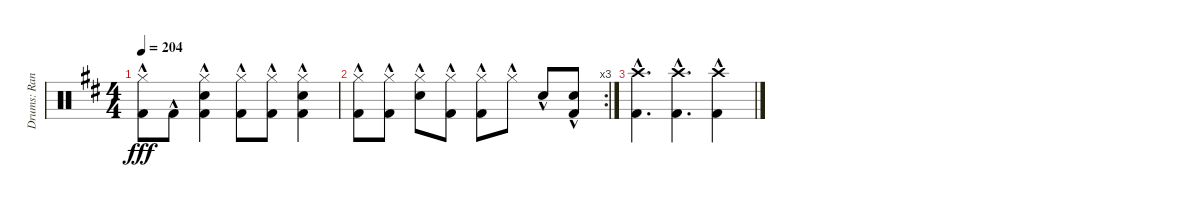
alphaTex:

\track ("Drums: Randy" "Drums: Ran") {instrument percussion}
\staff {score}
\articulation defaults
\ts (4 4)
\tempo 204
\clef neutral
\ks d
("Hi-Hat (closed)"{hac} "Kick (hit) 2"{hac}).8{dy fff} "Kick (hit) 2"{hac}.8{beam merge} ("Hi-Hat (closed)"{hac} "Snare (hit) 2"{hac} "Kick (hit) 2"{hac}).4 ("Hi-Hat (closed)"{hac} "Kick (hit) 2"{hac}).8 ("Hi-Hat (closed)"{hac} "Kick (hit) 2"{hac}).8{beam merge} ("Hi-Hat (closed)"{hac} "Snare (hit) 2"{hac} "Kick (hit) 2"{hac}).4 |
\rc 3
("Hi-Hat (closed)"{hac} "Kick (hit) 2"{hac}).8 ("Hi-Hat (closed)"{hac} "Kick (hit) 2"{hac}).8 ("Hi-Hat (closed)"{hac} "Snare (hit) 2"{hac}).8 ("Hi-Hat (closed)"{hac} "Kick (hit) 2"{hac}).8 ("Hi-Hat (closed)"{hac} "Kick (hit) 2"{hac}).8 "Hi-Hat (closed)"{hac}.8 "Snare (hit) 2"{hac}.8 ("Snare (hit) 2"{hac} "Kick (hit) 2"{hac}).8 |
("Crash high (hit)"{hac} "Kick (hit) 2"{hac}).4{d} ("Crash high (hit)"{hac} "Kick (hit) 2"{hac}).4{d} ("Crash high (hit)"{hac} "Kick (hit) 2"{hac}).4
